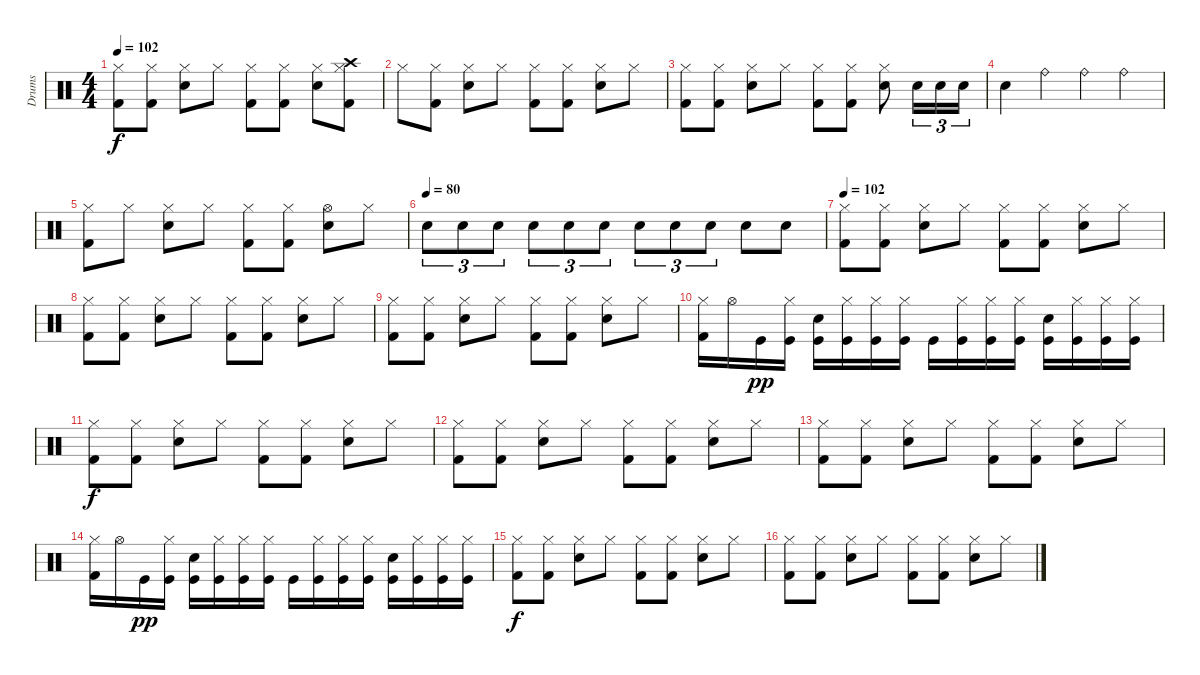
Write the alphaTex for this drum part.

\track ("Drums" "Drums") {instrument percussion}
\staff {score}
\articulation defaults
\ts (4 4)
\tempo 102
\clef neutral
\ks c
("Kick (hit) 2" "Hi-Hat (closed)").8{dy f} ("Kick (hit) 2" "Hi-Hat (closed)").8 ("Snare (hit) 2" "Hi-Hat (closed)").8 "Hi-Hat (closed)".8 ("Kick (hit) 2" "Hi-Hat (closed)").8 ("Kick (hit) 2" "Hi-Hat (closed)").8 ("Snare (hit) 2" "Hi-Hat (closed)").8 ("Kick (hit) 2" "Hi-Hat (closed)" "Crash high (hit)").8 |
"Hi-Hat (closed)".8 ("Kick (hit) 2" "Hi-Hat (closed)").8 ("Snare (hit) 2" "Hi-Hat (closed)").8 "Hi-Hat (closed)".8 ("Kick (hit) 2" "Hi-Hat (closed)").8 ("Kick (hit) 2" "Hi-Hat (closed)").8 ("Snare (hit) 2" "Hi-Hat (closed)").8 "Hi-Hat (closed)".8 |
("Kick (hit) 2" "Hi-Hat (closed)").8 ("Kick (hit) 2" "Hi-Hat (closed)").8 ("Snare (hit) 2" "Hi-Hat (closed)").8 "Hi-Hat (closed)".8 ("Kick (hit) 2" "Hi-Hat (closed)").8 ("Kick (hit) 2" "Hi-Hat (closed)").8 ("Snare (hit) 2" "Hi-Hat (closed)").8 "Snare (hit) 2".16{tu (3 2)} "Snare (hit) 2".16{tu (3 2)} "Snare (hit) 2".16{tu (3 2)} |
"Snare (hit) 2".4 "Ride (bell)".4 "Ride (bell)".4 "Ride (bell)".4 |
("Kick (hit) 2" "Hi-Hat (closed)").8 "Hi-Hat (closed)".8 ("Snare (hit) 2" "Hi-Hat (closed)").8 "Hi-Hat (closed)".8 ("Kick (hit) 2" "Hi-Hat (closed)").8 ("Kick (hit) 2" "Hi-Hat (closed)").8 ("Snare (hit) 2" "Hi-Hat (open)").8 "Hi-Hat (closed)".8 |
\tempo (80)
"Snare (hit) 2".8{tu (3 2)} "Snare (hit) 2".8{tu (3 2)} "Snare (hit) 2".8{tu (3 2)} "Snare (hit) 2".8{tu (3 2)} "Snare (hit) 2".8{tu (3 2)} "Snare (hit) 2".8{tu (3 2)} "Snare (hit) 2".8{tu (3 2)} "Snare (hit) 2".8{tu (3 2)} "Snare (hit) 2".8{tu (3 2)} "Snare (hit) 2".8 "Snare (hit) 2".8 |
\tempo 102
("Kick (hit) 2" "Hi-Hat (closed)").8 ("Kick (hit) 2" "Hi-Hat (closed)").8 ("Snare (hit) 2" "Hi-Hat (closed)").8 "Hi-Hat (closed)".8 ("Kick (hit) 2" "Hi-Hat (closed)").8 ("Kick (hit) 2" "Hi-Hat (closed)").8 ("Snare (hit) 2" "Hi-Hat (closed)").8 "Hi-Hat (closed)".8 |
("Kick (hit) 2" "Hi-Hat (closed)").8 ("Kick (hit) 2" "Hi-Hat (closed)").8 ("Snare (hit) 2" "Hi-Hat (closed)").8 "Hi-Hat (closed)".8 ("Kick (hit) 2" "Hi-Hat (closed)").8 ("Kick (hit) 2" "Hi-Hat (closed)").8 ("Snare (hit) 2" "Hi-Hat (closed)").8 "Hi-Hat (closed)".8 |
("Kick (hit) 2" "Hi-Hat (closed)").8 ("Kick (hit) 2" "Hi-Hat (closed)").8 ("Snare (hit) 2" "Hi-Hat (closed)").8 "Hi-Hat (closed)".8 ("Kick (hit) 2" "Hi-Hat (closed)").8 ("Kick (hit) 2" "Hi-Hat (closed)").8 ("Snare (hit) 2" "Hi-Hat (closed)").8 "Hi-Hat (closed)".8 |
("Kick (hit) 2" "Hi-Hat (closed)").16 "Hi-Hat (open)".16 "Kick (hit)".16{dy pp} ("Kick (hit)" "Hi-Hat (closed)").16 ("Kick (hit)" "Snare (hit) 2").16 ("Kick (hit)" "Hi-Hat (closed)").16 ("Kick (hit)" "Hi-Hat (closed)").16 ("Kick (hit)" "Hi-Hat (closed)").16 "Kick (hit)".16 ("Kick (hit)" "Hi-Hat (closed)").16 ("Kick (hit)" "Hi-Hat (closed)").16 ("Kick (hit)" "Hi-Hat (closed)").16 ("Kick (hit)" "Snare (hit) 2").16 ("Kick (hit)" "Hi-Hat (closed)").16 ("Kick (hit)" "Hi-Hat (closed)").16 ("Kick (hit)" "Hi-Hat (closed)").16 |
("Kick (hit) 2" "Hi-Hat (closed)").8{dy f} ("Kick (hit) 2" "Hi-Hat (closed)").8 ("Snare (hit) 2" "Hi-Hat (closed)").8 "Hi-Hat (closed)".8 ("Kick (hit) 2" "Hi-Hat (closed)").8 ("Kick (hit) 2" "Hi-Hat (closed)").8 ("Snare (hit) 2" "Hi-Hat (closed)").8 "Hi-Hat (closed)".8 |
("Kick (hit) 2" "Hi-Hat (closed)").8 ("Kick (hit) 2" "Hi-Hat (closed)").8 ("Snare (hit) 2" "Hi-Hat (closed)").8 "Hi-Hat (closed)".8 ("Kick (hit) 2" "Hi-Hat (closed)").8 ("Kick (hit) 2" "Hi-Hat (closed)").8 ("Snare (hit) 2" "Hi-Hat (closed)").8 "Hi-Hat (closed)".8 |
("Kick (hit) 2" "Hi-Hat (closed)").8 ("Kick (hit) 2" "Hi-Hat (closed)").8 ("Snare (hit) 2" "Hi-Hat (closed)").8 "Hi-Hat (closed)".8 ("Kick (hit) 2" "Hi-Hat (closed)").8 ("Kick (hit) 2" "Hi-Hat (closed)").8 ("Snare (hit) 2" "Hi-Hat (closed)").8 "Hi-Hat (closed)".8 |
("Kick (hit) 2" "Hi-Hat (closed)").16 "Hi-Hat (open)".16 "Kick (hit)".16{dy pp} ("Kick (hit)" "Hi-Hat (closed)").16 ("Kick (hit)" "Snare (hit) 2").16 ("Kick (hit)" "Hi-Hat (closed)").16 ("Kick (hit)" "Hi-Hat (closed)").16 ("Kick (hit)" "Hi-Hat (closed)").16 "Kick (hit)".16 ("Kick (hit)" "Hi-Hat (closed)").16 ("Kick (hit)" "Hi-Hat (closed)").16 ("Kick (hit)" "Hi-Hat (closed)").16 ("Kick (hit)" "Snare (hit) 2").16 ("Kick (hit)" "Hi-Hat (closed)").16 ("Kick (hit)" "Hi-Hat (closed)").16 ("Kick (hit)" "Hi-Hat (closed)").16 |
("Kick (hit) 2" "Hi-Hat (closed)").8{dy f} ("Kick (hit) 2" "Hi-Hat (closed)").8 ("Snare (hit) 2" "Hi-Hat (closed)").8 "Hi-Hat (closed)".8 ("Kick (hit) 2" "Hi-Hat (closed)").8 ("Kick (hit) 2" "Hi-Hat (closed)").8 ("Snare (hit) 2" "Hi-Hat (closed)").8 "Hi-Hat (closed)".8 |
("Kick (hit) 2" "Hi-Hat (closed)").8 ("Kick (hit) 2" "Hi-Hat (closed)").8 ("Snare (hit) 2" "Hi-Hat (closed)").8 "Hi-Hat (closed)".8 ("Kick (hit) 2" "Hi-Hat (closed)").8 ("Kick (hit) 2" "Hi-Hat (closed)").8 ("Snare (hit) 2" "Hi-Hat (closed)").8 "Hi-Hat (closed)".8
